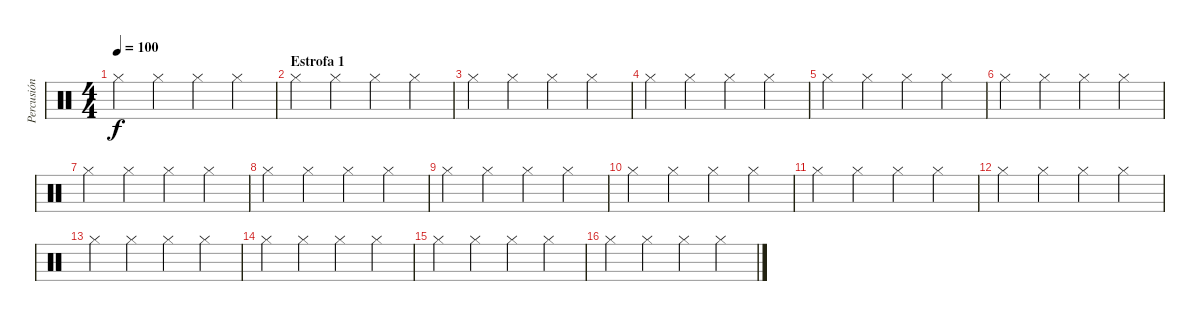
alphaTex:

\track ("Percusión" "Percusión") {instrument percussion}
\staff {score}
\articulation defaults
\ts (4 4)
\tempo 100
\clef neutral
\ks c "Hi-Hat (closed)".4{dy f} "Hi-Hat (closed)".4 "Hi-Hat (closed)".4 "Hi-Hat (closed)".4
|
\section ("" "Estrofa 1")
"Hi-Hat (closed)".4 "Hi-Hat (closed)".4 "Hi-Hat (closed)".4 "Hi-Hat (closed)".4 |
"Hi-Hat (closed)".4 "Hi-Hat (closed)".4 "Hi-Hat (closed)".4 "Hi-Hat (closed)".4 |
"Hi-Hat (closed)".4 "Hi-Hat (closed)".4 "Hi-Hat (closed)".4 "Hi-Hat (closed)".4 |
"Hi-Hat (closed)".4 "Hi-Hat (closed)".4 "Hi-Hat (closed)".4 "Hi-Hat (closed)".4 |
"Hi-Hat (closed)".4 "Hi-Hat (closed)".4 "Hi-Hat (closed)".4 "Hi-Hat (closed)".4 |
"Hi-Hat (closed)".4 "Hi-Hat (closed)".4 "Hi-Hat (closed)".4 "Hi-Hat (closed)".4 |
"Hi-Hat (closed)".4 "Hi-Hat (closed)".4 "Hi-Hat (closed)".4 "Hi-Hat (closed)".4 |
"Hi-Hat (closed)".4 "Hi-Hat (closed)".4 "Hi-Hat (closed)".4 "Hi-Hat (closed)".4 |
"Hi-Hat (closed)".4 "Hi-Hat (closed)".4 "Hi-Hat (closed)".4 "Hi-Hat (closed)".4 |
"Hi-Hat (closed)".4 "Hi-Hat (closed)".4 "Hi-Hat (closed)".4 "Hi-Hat (closed)".4 |
"Hi-Hat (closed)".4 "Hi-Hat (closed)".4 "Hi-Hat (closed)".4 "Hi-Hat (closed)".4 |
"Hi-Hat (closed)".4 "Hi-Hat (closed)".4 "Hi-Hat (closed)".4 "Hi-Hat (closed)".4 |
"Hi-Hat (closed)".4 "Hi-Hat (closed)".4 "Hi-Hat (closed)".4 "Hi-Hat (closed)".4 |
"Hi-Hat (closed)".4 "Hi-Hat (closed)".4 "Hi-Hat (closed)".4 "Hi-Hat (closed)".4 |
"Hi-Hat (closed)".4 "Hi-Hat (closed)".4 "Hi-Hat (closed)".4 "Hi-Hat (closed)".4
